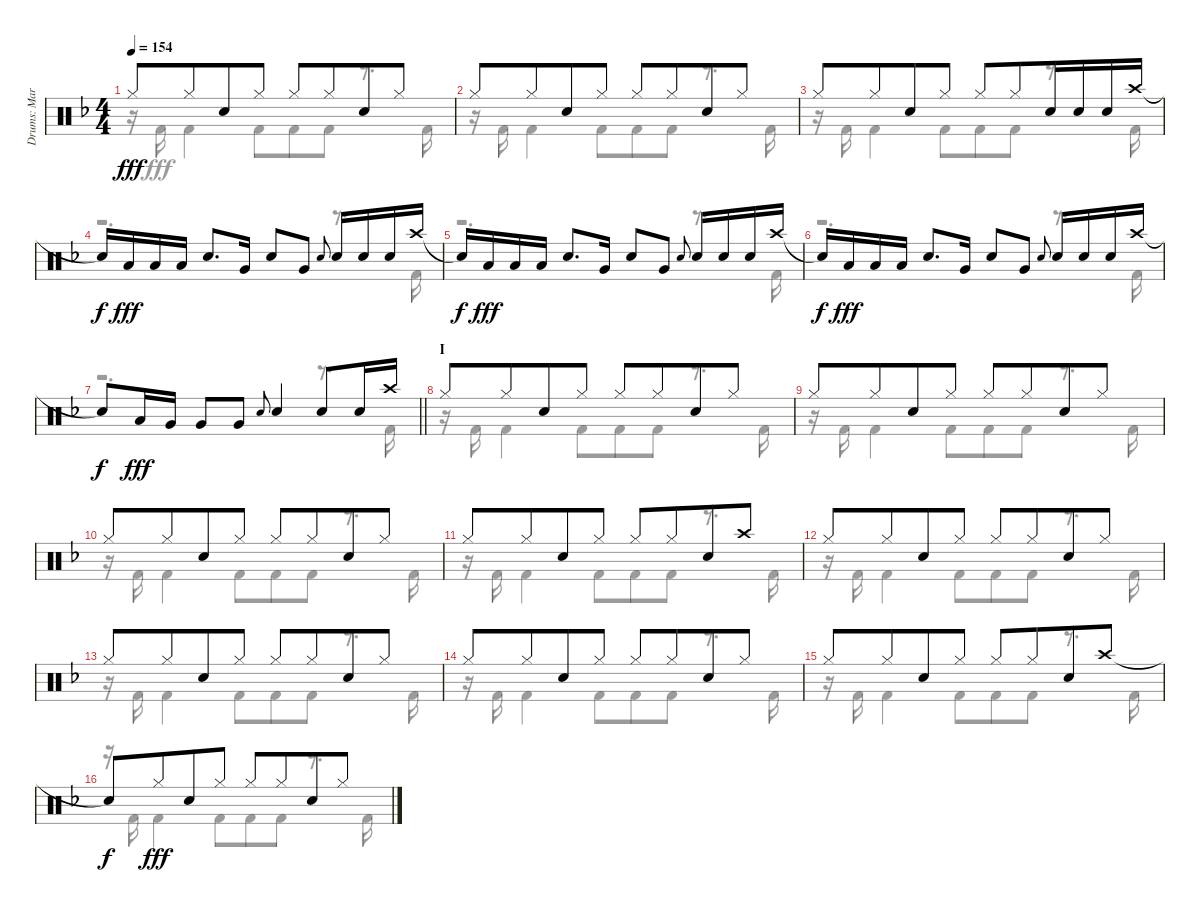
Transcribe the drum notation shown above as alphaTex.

\track ("Drums: Mark" "Drums: Mar") {instrument percussion}
\staff {score}
\articulation defaults
\voice
\ts (4 4)
\tempo 154
\clef neutral
\ks f "Hi-Hat (closed)".8{dy fff} "Hi-Hat (closed)".8{beam merge} "Snare (hit) 2".8 "Hi-Hat (closed)".8 "Hi-Hat (closed)".8 "Hi-Hat (closed)".8{beam merge} "Snare (hit) 2".8 "Hi-Hat (closed)".8
|
"Hi-Hat (closed)".8 "Hi-Hat (closed)".8{beam merge} "Snare (hit) 2".8 "Hi-Hat (closed)".8 "Hi-Hat (closed)".8 "Hi-Hat (closed)".8{beam merge} "Snare (hit) 2".8 "Hi-Hat (closed)".8 |
"Hi-Hat (closed)".8 "Hi-Hat (closed)".8{beam merge} "Snare (hit) 2".8 "Hi-Hat (closed)".8 "Hi-Hat (closed)".8 "Hi-Hat (closed)".8{beam merge} "Snare (hit) 2".16 "Snare (hit) 2".16 "Snare (hit) 2".16 "Crash high (hit)".16 |
"Snare (hit)"{t}.16{dy f beam merge} "Low Tom (hit)".16{dy fff} "Low Tom (hit)".16 "Low Tom (hit)".16 "Snare (hit) 2".8{d} "Very Low Tom (hit)".16 "Snare (hit) 2".8 "Very Low Tom (hit)".8 "Electric Snare (hit)".8{gr onbeat beam merge} "Snare (hit) 2".16 "Snare (hit) 2".16 "Snare (hit) 2".16 "Crash high (hit)".16 |
"Snare (hit)"{t}.16{dy f beam merge} "Low Tom (hit)".16{dy fff} "Low Tom (hit)".16 "Low Tom (hit)".16 "Snare (hit) 2".8{d} "Very Low Tom (hit)".16 "Snare (hit) 2".8 "Very Low Tom (hit)".8 "Electric Snare (hit)".8{gr onbeat beam merge} "Snare (hit) 2".16 "Snare (hit) 2".16 "Snare (hit) 2".16 "Crash high (hit)".16 |
"Snare (hit)"{t}.16{dy f beam merge} "Low Tom (hit)".16{dy fff} "Low Tom (hit)".16 "Low Tom (hit)".16 "Snare (hit) 2".8{d} "Very Low Tom (hit)".16 "Snare (hit) 2".8 "Very Low Tom (hit)".8 "Electric Snare (hit)".8{gr onbeat beam merge} "Snare (hit) 2".16 "Snare (hit) 2".16 "Snare (hit) 2".16 "Crash high (hit)".16 |
\barLineRight lightlight "Snare (hit)"{t}.8{dy f beam merge} "Low Tom (hit)".16{dy fff} "Very Low Tom (hit)".16 "Very Low Tom (hit)".8 "Very Low Tom (hit)".8 "Electric Snare (hit)".8{gr onbeat beam merge} "Snare (hit) 2".4 "Snare (hit) 2".8 "Snare (hit) 2".16 "Crash high (hit)".16
|
\section ("" "I")
"Hi-Hat (closed)".8 "Hi-Hat (closed)".8{beam merge} "Snare (hit) 2".8 "Hi-Hat (closed)".8 "Hi-Hat (closed)".8 "Hi-Hat (closed)".8{beam merge} "Snare (hit) 2".8 "Hi-Hat (closed)".8 |
"Hi-Hat (closed)".8 "Hi-Hat (closed)".8{beam merge} "Snare (hit) 2".8 "Hi-Hat (closed)".8 "Hi-Hat (closed)".8 "Hi-Hat (closed)".8{beam merge} "Snare (hit) 2".8 "Hi-Hat (closed)".8 |
"Hi-Hat (closed)".8 "Hi-Hat (closed)".8{beam merge} "Snare (hit) 2".8 "Hi-Hat (closed)".8 "Hi-Hat (closed)".8 "Hi-Hat (closed)".8{beam merge} "Snare (hit) 2".8 "Hi-Hat (closed)".8 |
"Hi-Hat (closed)".8 "Hi-Hat (closed)".8{beam merge} "Snare (hit) 2".8 "Hi-Hat (closed)".8 "Hi-Hat (closed)".8 "Hi-Hat (closed)".8{beam merge} "Snare (hit) 2".8 "Crash high (hit)".8 |
"Hi-Hat (closed)".8 "Hi-Hat (closed)".8{beam merge} "Snare (hit) 2".8 "Hi-Hat (closed)".8 "Hi-Hat (closed)".8 "Hi-Hat (closed)".8{beam merge} "Snare (hit) 2".8 "Hi-Hat (closed)".8 |
"Hi-Hat (closed)".8 "Hi-Hat (closed)".8{beam merge} "Snare (hit) 2".8 "Hi-Hat (closed)".8 "Hi-Hat (closed)".8 "Hi-Hat (closed)".8{beam merge} "Snare (hit) 2".8 "Hi-Hat (closed)".8 |
"Hi-Hat (closed)".8 "Hi-Hat (closed)".8{beam merge} "Snare (hit) 2".8 "Hi-Hat (closed)".8 "Hi-Hat (closed)".8 "Hi-Hat (closed)".8{beam merge} "Snare (hit) 2".8 "Hi-Hat (closed)".8 |
"Hi-Hat (closed)".8 "Hi-Hat (closed)".8{beam merge} "Snare (hit) 2".8 "Hi-Hat (closed)".8 "Hi-Hat (closed)".8 "Hi-Hat (closed)".8{beam merge} "Snare (hit) 2".8 "Crash high (hit)".8 |
"Snare (hit)"{t}.8{dy f} "Hi-Hat (closed)".8{dy fff beam merge} "Snare (hit) 2".8 "Hi-Hat (closed)".8 "Hi-Hat (closed)".8 "Hi-Hat (closed)".8{beam merge} "Snare (hit) 2".8 "Hi-Hat (closed)".8
\voice
\clef neutral
\ottava regular
\simile none
\ks f
r.16{dy fff} "Kick (hit) 2".16 "Kick (hit) 2".4 "Kick (hit) 2".8{beam merge} "Kick (hit) 2".8 "Kick (hit) 2".8 r.8{d} "Kick (hit) 2".16 |
r.16 "Kick (hit) 2".16 "Kick (hit) 2".4 "Kick (hit) 2".8{beam merge} "Kick (hit) 2".8 "Kick (hit) 2".8 r.8{d} "Kick (hit) 2".16 |
r.16 "Kick (hit) 2".16 "Kick (hit) 2".4 "Kick (hit) 2".8{beam merge} "Kick (hit) 2".8 "Kick (hit) 2".8 r.8{d} "Kick (hit) 2".16 |
r.2{d} r.8{d} "Kick (hit) 2".16 |
r.2{d} r.8{d} "Kick (hit) 2".16 |
r.2{d} r.8{d} "Kick (hit) 2".16 |
\barLineRight lightlight
r.2{d} r.8{d} "Kick (hit) 2".16 |
r.16 "Kick (hit) 2".16 "Kick (hit) 2".4 "Kick (hit) 2".8{beam merge} "Kick (hit) 2".8 "Kick (hit) 2".8 r.8{d} "Kick (hit) 2".16 |
r.16 "Kick (hit) 2".16 "Kick (hit) 2".4 "Kick (hit) 2".8{beam merge} "Kick (hit) 2".8 "Kick (hit) 2".8 r.8{d} "Kick (hit) 2".16 |
r.16 "Kick (hit) 2".16 "Kick (hit) 2".4 "Kick (hit) 2".8{beam merge} "Kick (hit) 2".8 "Kick (hit) 2".8 r.8{d} "Kick (hit) 2".16 |
r.16 "Kick (hit) 2".16 "Kick (hit) 2".4 "Kick (hit) 2".8{beam merge} "Kick (hit) 2".8 "Kick (hit) 2".8 r.8{d} "Kick (hit) 2".16 |
r.16 "Kick (hit) 2".16 "Kick (hit) 2".4 "Kick (hit) 2".8{beam merge} "Kick (hit) 2".8 "Kick (hit) 2".8 r.8{d} "Kick (hit) 2".16 |
r.16 "Kick (hit) 2".16 "Kick (hit) 2".4 "Kick (hit) 2".8{beam merge} "Kick (hit) 2".8 "Kick (hit) 2".8 r.8{d} "Kick (hit) 2".16 |
r.16 "Kick (hit) 2".16 "Kick (hit) 2".4 "Kick (hit) 2".8{beam merge} "Kick (hit) 2".8 "Kick (hit) 2".8 r.8{d} "Kick (hit) 2".16 |
r.16 "Kick (hit) 2".16 "Kick (hit) 2".4 "Kick (hit) 2".8{beam merge} "Kick (hit) 2".8 "Kick (hit) 2".8 r.8{d} "Kick (hit) 2".16 |
r.16 "Kick (hit) 2".16 "Kick (hit) 2".4 "Kick (hit) 2".8{beam merge} "Kick (hit) 2".8 "Kick (hit) 2".8 r.8{d} "Kick (hit) 2".16
